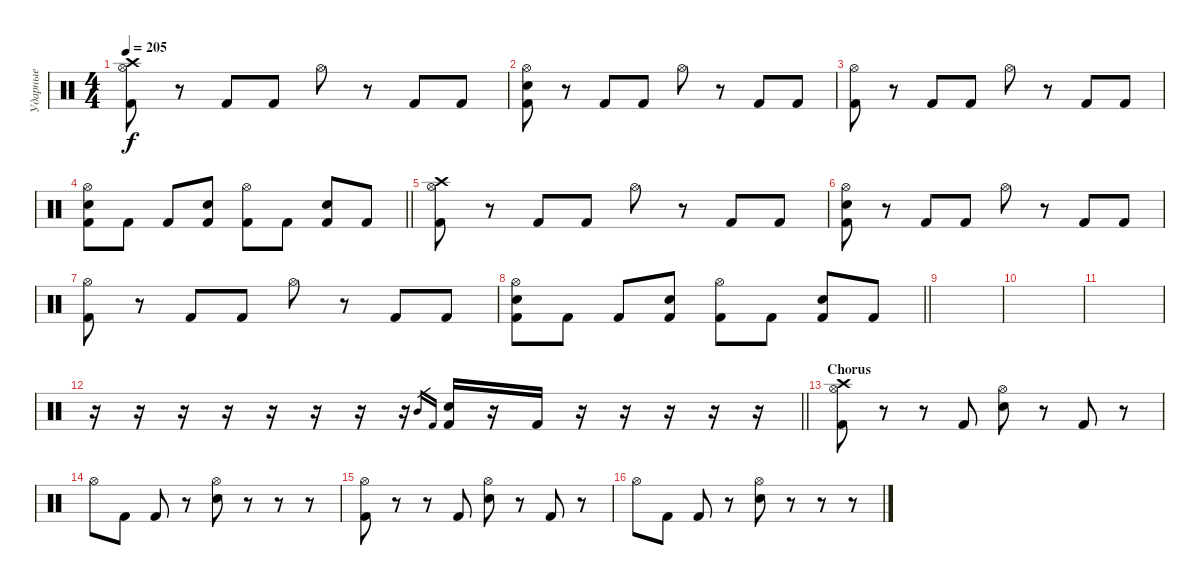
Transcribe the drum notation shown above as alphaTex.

\track ("Ударные" "Ударные") {instrument percussion}
\staff {score}
\articulation defaults
\ts (4 4)
\tempo 205
\clef neutral
\ks c
("Hi-Hat (open)" "Crash high (hit)" "Kick (hit) 2").8{dy f} r.8 "Kick (hit) 2".8 "Kick (hit) 2".8 "Hi-Hat (open)".8 r.8 "Kick (hit) 2".8 "Kick (hit) 2".8 |
("Hi-Hat (open)" "Snare (hit) 2" "Kick (hit) 2").8 r.8 "Kick (hit) 2".8 "Kick (hit) 2".8 "Hi-Hat (open)".8 r.8 "Kick (hit) 2".8 "Kick (hit) 2".8 |
("Hi-Hat (open)" "Kick (hit) 2").8 r.8 "Kick (hit) 2".8 "Kick (hit) 2".8 "Hi-Hat (open)".8 r.8 "Kick (hit) 2".8 "Kick (hit) 2".8 |
\barLineRight lightlight
("Hi-Hat (open)" "Snare (hit) 2" "Kick (hit) 2").8 "Kick (hit) 2".8 "Kick (hit) 2".8 ("Snare (hit) 2" "Kick (hit) 2").8 ("Hi-Hat (open)" "Kick (hit) 2").8 "Kick (hit) 2".8 ("Snare (hit) 2" "Kick (hit) 2").8 "Kick (hit) 2".8 |
("Hi-Hat (open)" "Crash high (hit)" "Kick (hit) 2").8 r.8 "Kick (hit) 2".8 "Kick (hit) 2".8 "Hi-Hat (open)".8 r.8 "Kick (hit) 2".8 "Kick (hit) 2".8 |
("Hi-Hat (open)" "Snare (hit) 2" "Kick (hit) 2").8 r.8 "Kick (hit) 2".8 "Kick (hit) 2".8 "Hi-Hat (open)".8 r.8 "Kick (hit) 2".8 "Kick (hit) 2".8 |
("Hi-Hat (open)" "Kick (hit) 2").8 r.8 "Kick (hit) 2".8 "Kick (hit) 2".8 "Hi-Hat (open)".8 r.8 "Kick (hit) 2".8 "Kick (hit) 2".8 |
\barLineRight lightlight
("Hi-Hat (open)" "Snare (hit) 2" "Kick (hit) 2").8 "Kick (hit) 2".8 "Kick (hit) 2".8 ("Snare (hit) 2" "Kick (hit) 2").8 ("Hi-Hat (open)" "Kick (hit) 2").8 "Kick (hit) 2".8 ("Snare (hit) 2" "Kick (hit) 2").8 "Kick (hit) 2".8 |
|
|
|
\barLineRight lightlight
r.16 r.16 r.16 r.16 r.16 r.16 r.16 r.16 "Mid Tom (hit)".16{gr} "Kick (hit) 2".16{gr} ("Kick (hit) 2" "Snare (hit) 2").16 r.16 "Kick (hit) 2".16 r.16 r.16 r.16 r.16 r.16 |
\section ("" "Chorus")
("Hi-Hat (open)" "Crash high (hit)" "Kick (hit) 2").8 r.8 r.8 "Kick (hit) 2".8 ("Hi-Hat (open)" "Snare (hit) 2").8 r.8 "Kick (hit) 2".8 r.8 |
"Hi-Hat (open)".8 "Kick (hit) 2".8 "Kick (hit) 2".8 r.8 ("Hi-Hat (open)" "Snare (hit) 2").8 r.8 r.8 r.8 |
("Hi-Hat (open)" "Kick (hit) 2").8 r.8 r.8 "Kick (hit) 2".8 ("Hi-Hat (open)" "Snare (hit) 2").8 r.8 "Kick (hit) 2".8 r.8 |
"Hi-Hat (open)".8 "Kick (hit) 2".8 "Kick (hit) 2".8 r.8 ("Hi-Hat (open)" "Snare (hit) 2").8 r.8 r.8 r.8
